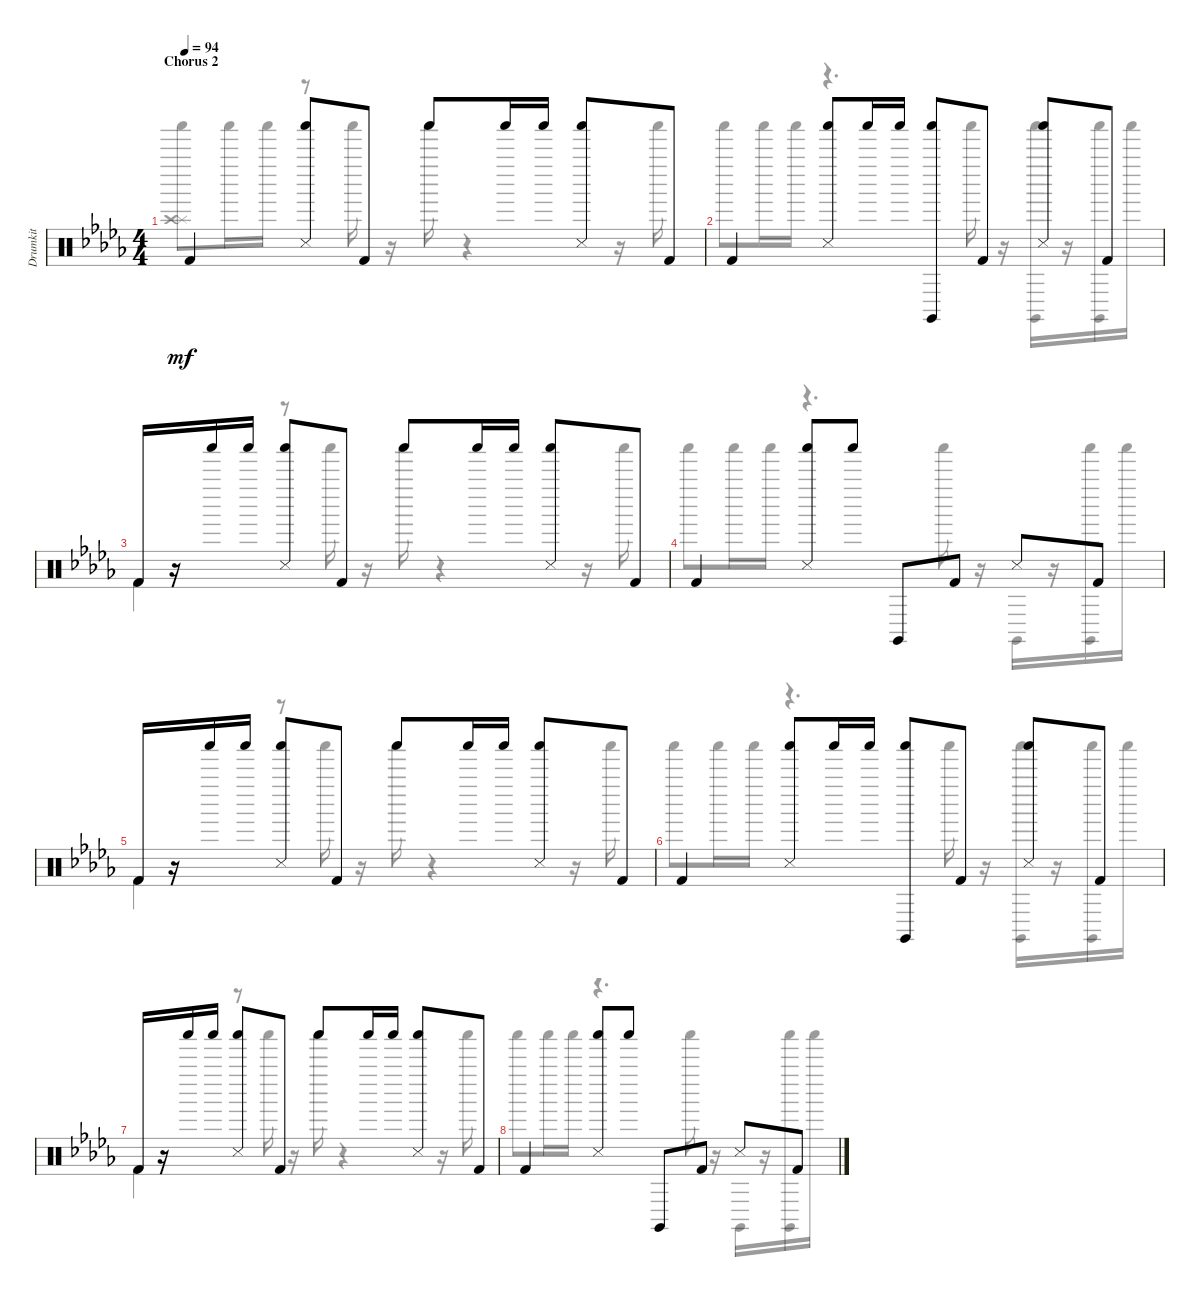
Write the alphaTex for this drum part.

\track ("Drumkit" "Drumkit") {instrument percussion}
\staff {score}
\articulation defaults
\voice
\ts (4 4)
\section ("" "Chorus 2")
\tempo 94
\clef neutral
\ks bbminor "Kick (hit) 2".4{dy mf}
("Shaker (hit)" "Snare (side stick) 3").8 "Kick (hit) 2".8 "Shaker (hit)".8 "Shaker (hit)".16 "Shaker (hit)".16 ("Shaker (hit)" "Snare (side stick) 3").8 "Kick (hit) 2".8 |
"Kick (hit) 2".4 ("Shaker (hit)" "Snare (side stick) 3").8 "Shaker (hit)".16 "Shaker (hit)".16 ("Shaker (hit)" "Claves (hit)").8 "Kick (hit) 2".8 ("Snare (side stick) 3" "Shaker (hit)").8 "Kick (hit) 2".8 |
"Kick (hit) 2".16 r.16 "Shaker (hit)".16 "Shaker (hit)".16 ("Shaker (hit)" "Snare (side stick) 3").8 "Kick (hit) 2".8 "Shaker (hit)".8 "Shaker (hit)".16 "Shaker (hit)".16 ("Snare (side stick) 3" "Shaker (hit)").8 "Kick (hit) 2".8 |
"Kick (hit) 2".4 ("Snare (side stick) 3" "Shaker (hit)").8 "Shaker (hit)".8 "Claves (hit)".8 "Kick (hit) 2".8 "Snare (side stick) 3".8 "Kick (hit) 2".8 |
"Kick (hit) 2".16 r.16 "Shaker (hit)".16 "Shaker (hit)".16 ("Shaker (hit)" "Snare (side stick) 3").8 "Kick (hit) 2".8 "Shaker (hit)".8 "Shaker (hit)".16 "Shaker (hit)".16 ("Snare (side stick) 3" "Shaker (hit)").8 "Kick (hit) 2".8 |
"Kick (hit) 2".4 ("Shaker (hit)" "Snare (side stick) 3").8 "Shaker (hit)".16 "Shaker (hit)".16 ("Claves (hit)" "Shaker (hit)").8 "Kick (hit) 2".8 ("Shaker (hit)" "Snare (side stick) 3").8 "Kick (hit) 2".8 |
"Kick (hit) 2".16 r.16 "Shaker (hit)".16 "Shaker (hit)".16 ("Shaker (hit)" "Snare (side stick) 3").8 "Kick (hit) 2".8 "Shaker (hit)".8 "Shaker (hit)".16 "Shaker (hit)".16 ("Shaker (hit)" "Snare (side stick) 3").8 "Kick (hit) 2".8 |
"Kick (hit) 2".4 ("Shaker (hit)" "Snare (side stick) 3").8 "Shaker (hit)".8 "Claves (hit)".8 "Kick (hit) 2".8 "Snare (side stick) 3".8 "Kick (hit) 2".8
\voice
\clef neutral
\ottava regular
\simile none
\ks bbminor
("Splash (hit)" "Crash high (hit)" "Shaker (hit)").8{dy mf} "Shaker (hit)".16 "Shaker (hit)".16 r.8 "Shaker (hit)".16 r.16 "Shaker (hit)".16 r.4 r.16 "Shaker (hit)".16 |
"Shaker (hit)".8 "Shaker (hit)".16 "Shaker (hit)".16 r.4{d} "Shaker (hit)".16 r.16 ("Claves (hit)" "Shaker (hit)").16 r.16 ("Claves (hit)" "Shaker (hit)").16 "Shaker (hit)".16 |
"Kick (hit) 2".4 r.8 "Shaker (hit)".16 r.16 "Shaker (hit)".16 r.4 r.16 "Shaker (hit)".16 |
"Shaker (hit)".8 "Shaker (hit)".16 "Shaker (hit)".16 r.4{d} "Shaker (hit)".16 r.16 "Claves (hit)".16 r.16 ("Shaker (hit)" "Claves (hit)").16 "Shaker (hit)".16 |
"Kick (hit) 2".4 r.8 "Shaker (hit)".16 r.16 "Shaker (hit)".16 r.4 r.16 "Shaker (hit)".16 |
"Shaker (hit)".8 "Shaker (hit)".16 "Shaker (hit)".16 r.4{d} "Shaker (hit)".16 r.16 ("Shaker (hit)" "Claves (hit)").16 r.16 ("Claves (hit)" "Shaker (hit)").16 "Shaker (hit)".16 |
"Kick (hit) 2".4 r.8 "Shaker (hit)".16 r.16 "Shaker (hit)".16 r.4 r.16 "Shaker (hit)".16 |
"Shaker (hit)".8 "Shaker (hit)".16 "Shaker (hit)".16 r.4{d} "Shaker (hit)".16 r.16 "Claves (hit)".16 r.16 ("Shaker (hit)" "Claves (hit)").16 "Shaker (hit)".16
